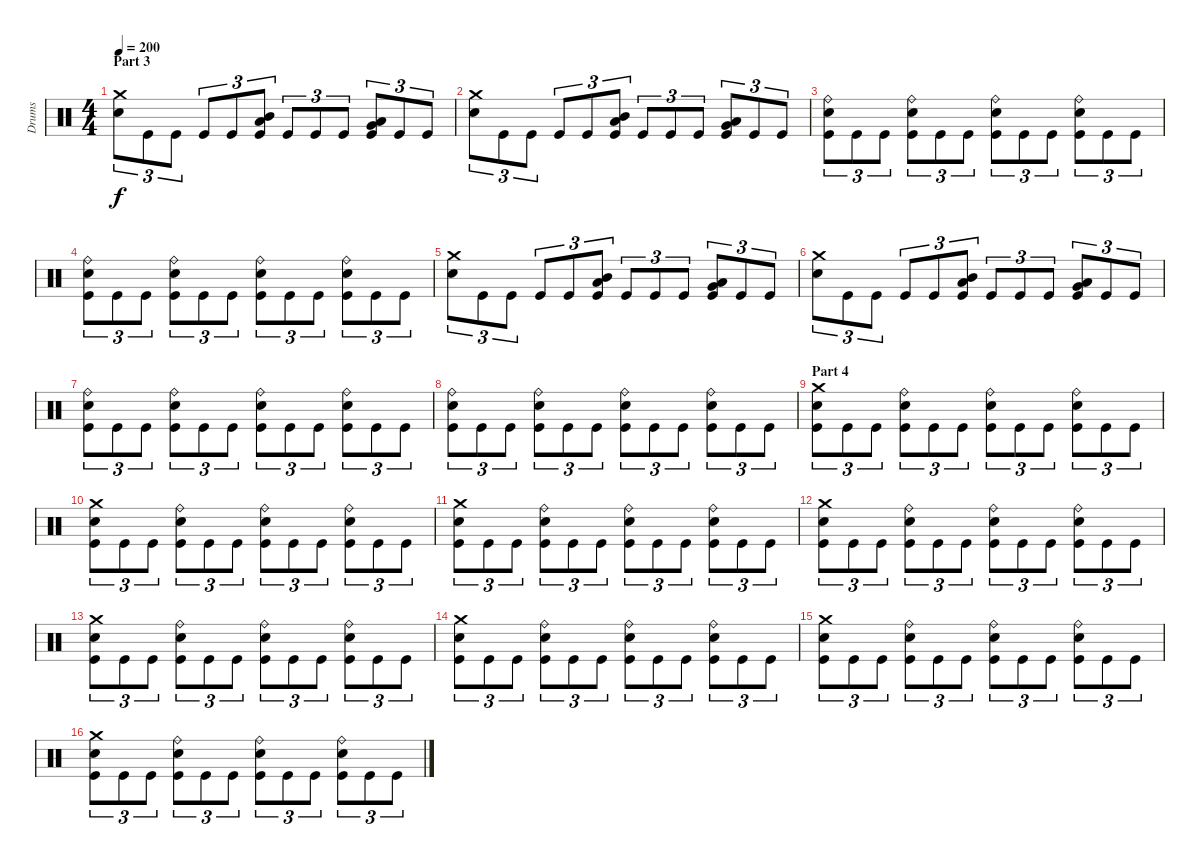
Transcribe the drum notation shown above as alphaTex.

\track ("Drums" "Drums") {instrument percussion}
\staff {score}
\articulation defaults
\ts (4 4)
\section ("" "Part 3")
\tempo 200
\clef neutral
\ks c
("Crash medium (hit)" "Electric Snare (hit)").8{tu (3 2) dy f} "Kick (hit)".8{tu (3 2)} "Kick (hit)".8{tu (3 2)} "Kick (hit)".8{tu (3 2)} "Kick (hit)".8{tu (3 2)} ("Mid Tom (hit)" "Low Tom (hit)" "Kick (hit)").8{tu (3 2)} "Kick (hit)".8{tu (3 2)} "Kick (hit)".8{tu (3 2)} "Kick (hit)".8{tu (3 2)} ("Low Tom (hit)" "Very Low Tom (hit)" "Kick (hit)").8{tu (3 2)} "Kick (hit)".8{tu (3 2)} "Kick (hit)".8{tu (3 2)} |
("Crash medium (hit)" "Electric Snare (hit)").8{tu (3 2)} "Kick (hit)".8{tu (3 2)} "Kick (hit)".8{tu (3 2)} "Kick (hit)".8{tu (3 2)} "Kick (hit)".8{tu (3 2)} ("Mid Tom (hit)" "Low Tom (hit)" "Kick (hit)").8{tu (3 2)} "Kick (hit)".8{tu (3 2)} "Kick (hit)".8{tu (3 2)} "Kick (hit)".8{tu (3 2)} ("Low Tom (hit)" "Very Low Tom (hit)" "Kick (hit)").8{tu (3 2)} "Kick (hit)".8{tu (3 2)} "Kick (hit)".8{tu (3 2)} |
("Ride (bell)" "Electric Snare (hit)" "Kick (hit)").8{tu (3 2)} "Kick (hit)".8{tu (3 2)} "Kick (hit)".8{tu (3 2)} ("Ride (bell)" "Electric Snare (hit)" "Kick (hit)").8{tu (3 2)} "Kick (hit)".8{tu (3 2)} "Kick (hit)".8{tu (3 2)} ("Ride (bell)" "Electric Snare (hit)" "Kick (hit)").8{tu (3 2)} "Kick (hit)".8{tu (3 2)} "Kick (hit)".8{tu (3 2)} ("Ride (bell)" "Electric Snare (hit)" "Kick (hit)").8{tu (3 2)} "Kick (hit)".8{tu (3 2)} "Kick (hit)".8{tu (3 2)} |
("Ride (bell)" "Electric Snare (hit)" "Kick (hit)").8{tu (3 2)} "Kick (hit)".8{tu (3 2)} "Kick (hit)".8{tu (3 2)} ("Ride (bell)" "Electric Snare (hit)" "Kick (hit)").8{tu (3 2)} "Kick (hit)".8{tu (3 2)} "Kick (hit)".8{tu (3 2)} ("Ride (bell)" "Electric Snare (hit)" "Kick (hit)").8{tu (3 2)} "Kick (hit)".8{tu (3 2)} "Kick (hit)".8{tu (3 2)} ("Ride (bell)" "Electric Snare (hit)" "Kick (hit)").8{tu (3 2)} "Kick (hit)".8{tu (3 2)} "Kick (hit)".8{tu (3 2)} |
("Crash medium (hit)" "Electric Snare (hit)").8{tu (3 2)} "Kick (hit)".8{tu (3 2)} "Kick (hit)".8{tu (3 2)} "Kick (hit)".8{tu (3 2)} "Kick (hit)".8{tu (3 2)} ("Mid Tom (hit)" "Low Tom (hit)" "Kick (hit)").8{tu (3 2)} "Kick (hit)".8{tu (3 2)} "Kick (hit)".8{tu (3 2)} "Kick (hit)".8{tu (3 2)} ("Low Tom (hit)" "Very Low Tom (hit)" "Kick (hit)").8{tu (3 2)} "Kick (hit)".8{tu (3 2)} "Kick (hit)".8{tu (3 2)} |
("Crash medium (hit)" "Electric Snare (hit)").8{tu (3 2)} "Kick (hit)".8{tu (3 2)} "Kick (hit)".8{tu (3 2)} "Kick (hit)".8{tu (3 2)} "Kick (hit)".8{tu (3 2)} ("Mid Tom (hit)" "Low Tom (hit)" "Kick (hit)").8{tu (3 2)} "Kick (hit)".8{tu (3 2)} "Kick (hit)".8{tu (3 2)} "Kick (hit)".8{tu (3 2)} ("Low Tom (hit)" "Very Low Tom (hit)" "Kick (hit)").8{tu (3 2)} "Kick (hit)".8{tu (3 2)} "Kick (hit)".8{tu (3 2)} |
("Ride (bell)" "Electric Snare (hit)" "Kick (hit)").8{tu (3 2)} "Kick (hit)".8{tu (3 2)} "Kick (hit)".8{tu (3 2)} ("Ride (bell)" "Electric Snare (hit)" "Kick (hit)").8{tu (3 2)} "Kick (hit)".8{tu (3 2)} "Kick (hit)".8{tu (3 2)} ("Ride (bell)" "Electric Snare (hit)" "Kick (hit)").8{tu (3 2)} "Kick (hit)".8{tu (3 2)} "Kick (hit)".8{tu (3 2)} ("Ride (bell)" "Electric Snare (hit)" "Kick (hit)").8{tu (3 2)} "Kick (hit)".8{tu (3 2)} "Kick (hit)".8{tu (3 2)} |
("Ride (bell)" "Electric Snare (hit)" "Kick (hit)").8{tu (3 2)} "Kick (hit)".8{tu (3 2)} "Kick (hit)".8{tu (3 2)} ("Ride (bell)" "Electric Snare (hit)" "Kick (hit)").8{tu (3 2)} "Kick (hit)".8{tu (3 2)} "Kick (hit)".8{tu (3 2)} ("Ride (bell)" "Electric Snare (hit)" "Kick (hit)").8{tu (3 2)} "Kick (hit)".8{tu (3 2)} "Kick (hit)".8{tu (3 2)} ("Ride (bell)" "Electric Snare (hit)" "Kick (hit)").8{tu (3 2)} "Kick (hit)".8{tu (3 2)} "Kick (hit)".8{tu (3 2)} |
\section ("" "Part 4")
("Crash medium (hit)" "Electric Snare (hit)" "Kick (hit)").8{tu (3 2)} "Kick (hit)".8{tu (3 2)} "Kick (hit)".8{tu (3 2)} ("Ride (bell)" "Electric Snare (hit)" "Kick (hit)").8{tu (3 2)} "Kick (hit)".8{tu (3 2)} "Kick (hit)".8{tu (3 2)} ("Ride (bell)" "Electric Snare (hit)" "Kick (hit)").8{tu (3 2)} "Kick (hit)".8{tu (3 2)} "Kick (hit)".8{tu (3 2)} ("Ride (bell)" "Electric Snare (hit)" "Kick (hit)").8{tu (3 2)} "Kick (hit)".8{tu (3 2)} "Kick (hit)".8{tu (3 2)} |
("Crash medium (hit)" "Electric Snare (hit)" "Kick (hit)").8{tu (3 2)} "Kick (hit)".8{tu (3 2)} "Kick (hit)".8{tu (3 2)} ("Ride (bell)" "Electric Snare (hit)" "Kick (hit)").8{tu (3 2)} "Kick (hit)".8{tu (3 2)} "Kick (hit)".8{tu (3 2)} ("Ride (bell)" "Electric Snare (hit)" "Kick (hit)").8{tu (3 2)} "Kick (hit)".8{tu (3 2)} "Kick (hit)".8{tu (3 2)} ("Ride (bell)" "Electric Snare (hit)" "Kick (hit)").8{tu (3 2)} "Kick (hit)".8{tu (3 2)} "Kick (hit)".8{tu (3 2)} |
("Crash medium (hit)" "Electric Snare (hit)" "Kick (hit)").8{tu (3 2)} "Kick (hit)".8{tu (3 2)} "Kick (hit)".8{tu (3 2)} ("Ride (bell)" "Electric Snare (hit)" "Kick (hit)").8{tu (3 2)} "Kick (hit)".8{tu (3 2)} "Kick (hit)".8{tu (3 2)} ("Ride (bell)" "Electric Snare (hit)" "Kick (hit)").8{tu (3 2)} "Kick (hit)".8{tu (3 2)} "Kick (hit)".8{tu (3 2)} ("Ride (bell)" "Electric Snare (hit)" "Kick (hit)").8{tu (3 2)} "Kick (hit)".8{tu (3 2)} "Kick (hit)".8{tu (3 2)} |
("Crash medium (hit)" "Electric Snare (hit)" "Kick (hit)").8{tu (3 2)} "Kick (hit)".8{tu (3 2)} "Kick (hit)".8{tu (3 2)} ("Ride (bell)" "Electric Snare (hit)" "Kick (hit)").8{tu (3 2)} "Kick (hit)".8{tu (3 2)} "Kick (hit)".8{tu (3 2)} ("Ride (bell)" "Electric Snare (hit)" "Kick (hit)").8{tu (3 2)} "Kick (hit)".8{tu (3 2)} "Kick (hit)".8{tu (3 2)} ("Ride (bell)" "Electric Snare (hit)" "Kick (hit)").8{tu (3 2)} "Kick (hit)".8{tu (3 2)} "Kick (hit)".8{tu (3 2)} |
("Crash medium (hit)" "Electric Snare (hit)" "Kick (hit)").8{tu (3 2)} "Kick (hit)".8{tu (3 2)} "Kick (hit)".8{tu (3 2)} ("Ride (bell)" "Electric Snare (hit)" "Kick (hit)").8{tu (3 2)} "Kick (hit)".8{tu (3 2)} "Kick (hit)".8{tu (3 2)} ("Ride (bell)" "Electric Snare (hit)" "Kick (hit)").8{tu (3 2)} "Kick (hit)".8{tu (3 2)} "Kick (hit)".8{tu (3 2)} ("Ride (bell)" "Electric Snare (hit)" "Kick (hit)").8{tu (3 2)} "Kick (hit)".8{tu (3 2)} "Kick (hit)".8{tu (3 2)} |
("Crash medium (hit)" "Electric Snare (hit)" "Kick (hit)").8{tu (3 2)} "Kick (hit)".8{tu (3 2)} "Kick (hit)".8{tu (3 2)} ("Ride (bell)" "Electric Snare (hit)" "Kick (hit)").8{tu (3 2)} "Kick (hit)".8{tu (3 2)} "Kick (hit)".8{tu (3 2)} ("Ride (bell)" "Electric Snare (hit)" "Kick (hit)").8{tu (3 2)} "Kick (hit)".8{tu (3 2)} "Kick (hit)".8{tu (3 2)} ("Ride (bell)" "Electric Snare (hit)" "Kick (hit)").8{tu (3 2)} "Kick (hit)".8{tu (3 2)} "Kick (hit)".8{tu (3 2)} |
("Crash medium (hit)" "Electric Snare (hit)" "Kick (hit)").8{tu (3 2)} "Kick (hit)".8{tu (3 2)} "Kick (hit)".8{tu (3 2)} ("Ride (bell)" "Electric Snare (hit)" "Kick (hit)").8{tu (3 2)} "Kick (hit)".8{tu (3 2)} "Kick (hit)".8{tu (3 2)} ("Ride (bell)" "Electric Snare (hit)" "Kick (hit)").8{tu (3 2)} "Kick (hit)".8{tu (3 2)} "Kick (hit)".8{tu (3 2)} ("Ride (bell)" "Electric Snare (hit)" "Kick (hit)").8{tu (3 2)} "Kick (hit)".8{tu (3 2)} "Kick (hit)".8{tu (3 2)} |
("Crash medium (hit)" "Electric Snare (hit)" "Kick (hit)").8{tu (3 2)} "Kick (hit)".8{tu (3 2)} "Kick (hit)".8{tu (3 2)} ("Ride (bell)" "Electric Snare (hit)" "Kick (hit)").8{tu (3 2)} "Kick (hit)".8{tu (3 2)} "Kick (hit)".8{tu (3 2)} ("Ride (bell)" "Electric Snare (hit)" "Kick (hit)").8{tu (3 2)} "Kick (hit)".8{tu (3 2)} "Kick (hit)".8{tu (3 2)} ("Ride (bell)" "Electric Snare (hit)" "Kick (hit)").8{tu (3 2)} "Kick (hit)".8{tu (3 2)} "Kick (hit)".8{tu (3 2)}
